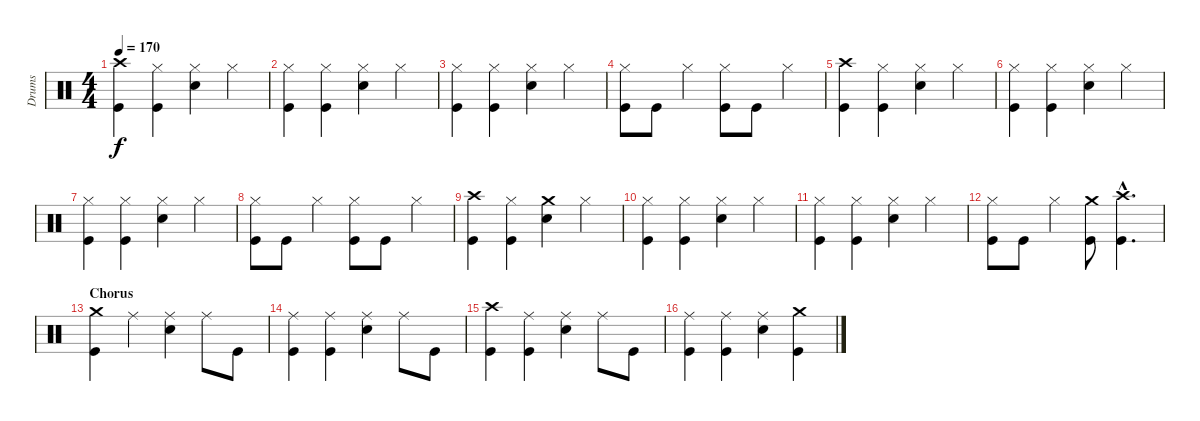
\track ("Drums" "Drums") {instrument percussion}
\staff {score}
\articulation defaults
\ts (4 4)
\tempo 170
\clef neutral
\ks c
("Crash high (hit)" "Kick (hit)").4{dy f} ("Hi-Hat (closed)" "Kick (hit)").4 ("Hi-Hat (closed)" "Snare (hit) 2").4 "Hi-Hat (closed)".4 |
("Hi-Hat (closed)" "Kick (hit)").4 ("Hi-Hat (closed)" "Kick (hit)").4 ("Hi-Hat (closed)" "Snare (hit) 2").4 "Hi-Hat (closed)".4 |
("Hi-Hat (closed)" "Kick (hit)").4 ("Hi-Hat (closed)" "Kick (hit)").4 ("Hi-Hat (closed)" "Snare (hit) 2").4 "Hi-Hat (closed)".4 |
("Hi-Hat (closed)" "Kick (hit)").8 "Kick (hit)".8 "Hi-Hat (closed)".4 ("Hi-Hat (closed)" "Kick (hit)").8 "Kick (hit)".8 "Hi-Hat (closed)".4 |
("Crash high (hit)" "Kick (hit)").4 ("Hi-Hat (closed)" "Kick (hit)").4 ("Hi-Hat (closed)" "Snare (hit) 2").4 "Hi-Hat (closed)".4 |
("Hi-Hat (closed)" "Kick (hit)").4 ("Hi-Hat (closed)" "Kick (hit)").4 ("Hi-Hat (closed)" "Snare (hit) 2").4 "Hi-Hat (closed)".4 |
("Hi-Hat (closed)" "Kick (hit)").4 ("Hi-Hat (closed)" "Kick (hit)").4 ("Hi-Hat (closed)" "Snare (hit) 2").4 "Hi-Hat (closed)".4 |
("Hi-Hat (closed)" "Kick (hit)").8 "Kick (hit)".8 "Hi-Hat (closed)".4 ("Hi-Hat (closed)" "Kick (hit)").8 "Kick (hit)".8 "Hi-Hat (closed)".4 |
("Crash high (hit)" "Kick (hit)").4 ("Hi-Hat (closed)" "Kick (hit)").4 ("Crash medium (hit)" "Snare (hit) 2").4 "Hi-Hat (closed)".4 |
("Hi-Hat (closed)" "Kick (hit)").4 ("Hi-Hat (closed)" "Kick (hit)").4 ("Hi-Hat (closed)" "Snare (hit) 2").4 "Hi-Hat (closed)".4 |
("Hi-Hat (closed)" "Kick (hit)").4 ("Hi-Hat (closed)" "Kick (hit)").4 ("Hi-Hat (closed)" "Snare (hit) 2").4 "Hi-Hat (closed)".4 |
("Hi-Hat (closed)" "Kick (hit)").8 "Kick (hit)".8 "Hi-Hat (closed)".4 ("Crash medium (hit)" "Kick (hit)").8 ("Crash high (hit)"{hac} "Kick (hit)"{hac}).4{d} |
\section ("" "Chorus")
("Crash medium (hit)" "Kick (hit)").4 "Ride (middle)".4 ("Ride (middle)" "Snare (hit) 2").4 "Ride (middle)".8 "Kick (hit)".8 |
("Ride (middle)" "Kick (hit)").4 ("Ride (middle)" "Kick (hit)").4 ("Ride (middle)" "Snare (hit) 2").4 "Ride (middle)".8 "Kick (hit)".8 |
("Crash high (hit)" "Kick (hit)").4 ("Ride (middle)" "Kick (hit)").4 ("Ride (middle)" "Snare (hit) 2").4 "Ride (middle)".8 "Kick (hit)".8 |
("Ride (middle)" "Kick (hit)").4 ("Ride (middle)" "Kick (hit)").4 ("Ride (middle)" "Snare (hit) 2").4 ("Crash medium (hit)" "Kick (hit)").4
